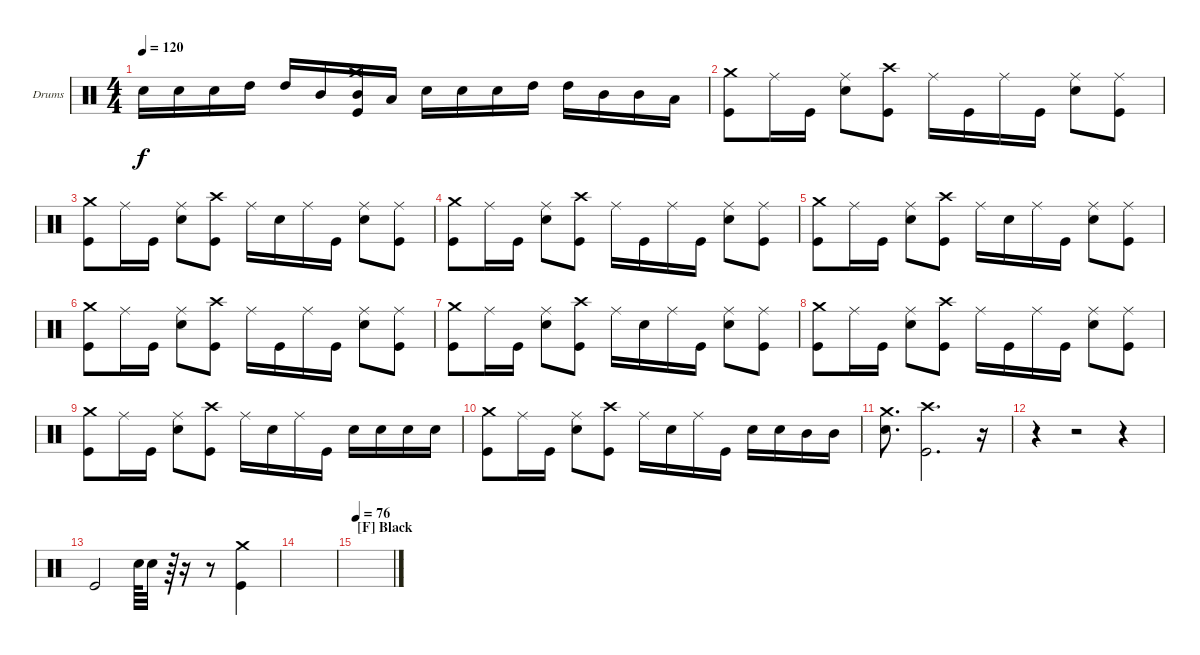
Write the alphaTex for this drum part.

\defaultSystemsLayout 4
\bracketExtendMode nobrackets
\firstSystemTrackNameOrientation horizontal
\otherSystemsTrackNameOrientation horizontal
\track ("Dave Krusen" "Drums") {instrument percussion}
\staff {score}
\articulation defaults
\ts (4 4)
\tempo 120
\clef neutral
\ks c "Snare (hit) 2".16{dy f} "Snare (hit) 2".16 "Snare (hit) 2".16 "High Tom (hit)".16 "High Tom (hit)".16 "Mid Tom (hit)".16
("Crash medium (hit)" "Kick (hit)" "Mid Tom (hit)").16 "Low Tom (hit)".16 "Snare (hit) 2".16 "Snare (hit) 2".16 "Snare (hit) 2".16 "High Tom (hit)".16 "High Tom (hit)".16 "Mid Tom (hit)".16 "Mid Tom (hit)".16 "Low Tom (hit)".16 |
("Crash medium (hit)" "Kick (hit)").8 "Ride (middle)".16 "Kick (hit)".16 ("Ride (middle)" "Snare (hit) 2").8 ("Crash high (hit)" "Kick (hit)").8 "Ride (middle)".16 "Kick (hit)".16 "Ride (middle)".16 "Kick (hit)".16 ("Ride (middle)" "Snare (hit) 2").8 ("Ride (middle)" "Kick (hit)").8 |
("Crash medium (hit)" "Kick (hit)").8 "Ride (middle)".16 "Kick (hit)".16 ("Ride (middle)" "Snare (hit) 2").8 ("Crash high (hit)" "Kick (hit)").8 "Ride (middle)".16 "Snare (hit) 2".16 "Ride (middle)".16 "Kick (hit)".16 ("Ride (middle)" "Snare (hit) 2").8 ("Ride (middle)" "Kick (hit)").8 |
("Crash medium (hit)" "Kick (hit)").8 "Ride (middle)".16 "Kick (hit)".16 ("Ride (middle)" "Snare (hit) 2").8 ("Crash high (hit)" "Kick (hit)").8 "Ride (middle)".16 "Kick (hit)".16 "Ride (middle)".16 "Kick (hit)".16 ("Ride (middle)" "Snare (hit) 2").8 ("Ride (middle)" "Kick (hit)").8 |
("Crash medium (hit)" "Kick (hit)").8 "Ride (middle)".16 "Kick (hit)".16 ("Ride (middle)" "Snare (hit) 2").8 ("Crash high (hit)" "Kick (hit)").8 "Ride (middle)".16 "Snare (hit) 2".16 "Ride (middle)".16 "Kick (hit)".16 ("Ride (middle)" "Snare (hit) 2").8 ("Ride (middle)" "Kick (hit)").8 |
("Crash medium (hit)" "Kick (hit)").8 "Ride (middle)".16 "Kick (hit)".16 ("Ride (middle)" "Snare (hit) 2").8 ("Crash high (hit)" "Kick (hit)").8 "Ride (middle)".16 "Kick (hit)".16 "Ride (middle)".16 "Kick (hit)".16 ("Ride (middle)" "Snare (hit) 2").8 ("Ride (middle)" "Kick (hit)").8 |
("Crash medium (hit)" "Kick (hit)").8 "Ride (middle)".16 "Kick (hit)".16 ("Ride (middle)" "Snare (hit) 2").8 ("Crash high (hit)" "Kick (hit)").8 "Ride (middle)".16 "Snare (hit) 2".16 "Ride (middle)".16 "Kick (hit)".16 ("Ride (middle)" "Snare (hit) 2").8 ("Ride (middle)" "Kick (hit)").8 |
("Crash medium (hit)" "Kick (hit)").8 "Ride (middle)".16 "Kick (hit)".16 ("Ride (middle)" "Snare (hit) 2").8 ("Crash high (hit)" "Kick (hit)").8 "Ride (middle)".16 "Kick (hit)".16 "Ride (middle)".16 "Kick (hit)".16 ("Ride (middle)" "Snare (hit) 2").8 ("Ride (middle)" "Kick (hit)").8 |
("Crash medium (hit)" "Kick (hit)").8 "Ride (middle)".16 "Kick (hit)".16 ("Ride (middle)" "Snare (hit) 2").8 ("Crash high (hit)" "Kick (hit)").8 "Ride (middle)".16 "Snare (hit) 2".16 "Ride (middle)".16 "Kick (hit)".16 "Snare (hit) 2".16 "Snare (hit) 2".16 "Snare (hit) 2".16 "Snare (hit) 2".16 |
("Crash medium (hit)" "Kick (hit)").8 "Ride (middle)".16 "Kick (hit)".16 ("Ride (middle)" "Snare (hit) 2").8 ("Crash high (hit)" "Kick (hit)").8 "Ride (middle)".16 "Snare (hit) 2".16 "Ride (middle)".16 "Kick (hit)".16 "Snare (hit) 2".16 "Snare (hit) 2".16 "Mid Tom (hit)".16 "Mid Tom (hit)".16 |
("Crash medium (hit)" "Snare (hit) 2").8{d} ("Crash high (hit)" "Kick (hit)").2{d} r.16 |
r.4 r.2 r.4 |
"Kick (hit)".2 "Snare (hit) 2".64 "Snare (hit) 2".32 r.64 r.16 r.8 ("Crash medium (hit)" "Kick (hit)").4 |
|
\section ("F" "Black")
\tempo 76
